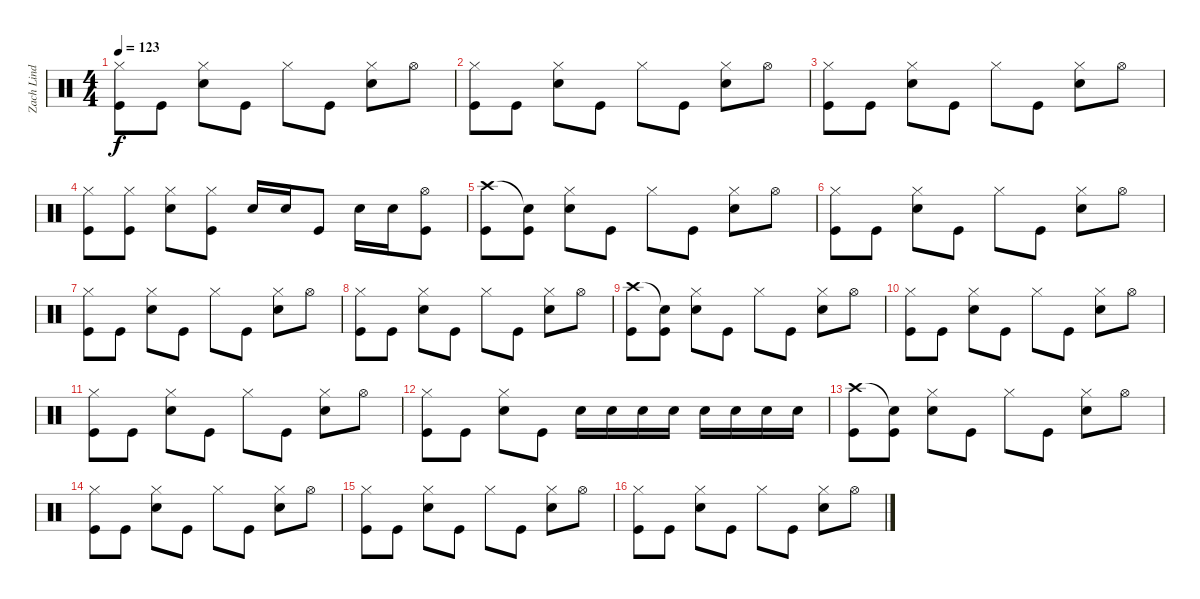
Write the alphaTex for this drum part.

\track ("Zach Lind (Drums)" "Zach Lind ") {instrument percussion}
\staff {score}
\articulation defaults
\ts (4 4)
\tempo 123
\clef neutral
\ks c
("Hi-Hat (closed)" "Kick (hit)").8{dy f} "Kick (hit)".8 ("Hi-Hat (closed)" "Snare (hit) 2").8 "Kick (hit)".8 "Hi-Hat (closed)".8 "Kick (hit)".8 ("Hi-Hat (closed)" "Snare (hit) 2").8 "Hi-Hat (open)".8 |
("Hi-Hat (closed)" "Kick (hit)").8 "Kick (hit)".8 ("Hi-Hat (closed)" "Snare (hit) 2").8 "Kick (hit)".8 "Hi-Hat (closed)".8 "Kick (hit)".8 ("Hi-Hat (closed)" "Snare (hit) 2").8 "Hi-Hat (open)".8 |
("Hi-Hat (closed)" "Kick (hit)").8 "Kick (hit)".8 ("Hi-Hat (closed)" "Snare (hit) 2").8 "Kick (hit)".8 "Hi-Hat (closed)".8 "Kick (hit)".8 ("Hi-Hat (closed)" "Snare (hit) 2").8 "Hi-Hat (open)".8 |
("Hi-Hat (closed)" "Kick (hit)").8 ("Hi-Hat (closed)" "Kick (hit)").8 ("Hi-Hat (closed)" "Snare (hit) 2").8 ("Hi-Hat (closed)" "Kick (hit)").8 "Snare (hit) 2".16 "Snare (hit) 2".16 "Kick (hit)".8 "Snare (hit) 2".16 "Snare (hit) 2".16 ("Hi-Hat (open)" "Kick (hit)").8 |
("Crash high (hit)" "Kick (hit)").8 ("Snare (hit)"{t} "Kick (hit)").8 ("Hi-Hat (closed)" "Snare (hit) 2").8 "Kick (hit)".8 "Hi-Hat (closed)".8 "Kick (hit)".8 ("Hi-Hat (closed)" "Snare (hit) 2").8 "Hi-Hat (open)".8 |
("Hi-Hat (closed)" "Kick (hit)").8 "Kick (hit)".8 ("Hi-Hat (closed)" "Snare (hit) 2").8 "Kick (hit)".8 "Hi-Hat (closed)".8 "Kick (hit)".8 ("Hi-Hat (closed)" "Snare (hit) 2").8 "Hi-Hat (open)".8 |
("Hi-Hat (closed)" "Kick (hit)").8 "Kick (hit)".8 ("Hi-Hat (closed)" "Snare (hit) 2").8 "Kick (hit)".8 "Hi-Hat (closed)".8 "Kick (hit)".8 ("Hi-Hat (closed)" "Snare (hit) 2").8 "Hi-Hat (open)".8 |
("Hi-Hat (closed)" "Kick (hit)").8 "Kick (hit)".8 ("Hi-Hat (closed)" "Snare (hit) 2").8 "Kick (hit)".8 "Hi-Hat (closed)".8 "Kick (hit)".8 ("Hi-Hat (closed)" "Snare (hit) 2").8 "Hi-Hat (open)".8 |
("Crash high (hit)" "Kick (hit)").8 ("Snare (hit)"{t} "Kick (hit)").8 ("Hi-Hat (closed)" "Snare (hit) 2").8 "Kick (hit)".8 "Hi-Hat (closed)".8 "Kick (hit)".8 ("Hi-Hat (closed)" "Snare (hit) 2").8 "Hi-Hat (open)".8 |
("Hi-Hat (closed)" "Kick (hit)").8 "Kick (hit)".8 ("Hi-Hat (closed)" "Snare (hit) 2").8 "Kick (hit)".8 "Hi-Hat (closed)".8 "Kick (hit)".8 ("Hi-Hat (closed)" "Snare (hit) 2").8 "Hi-Hat (open)".8 |
("Hi-Hat (closed)" "Kick (hit)").8 "Kick (hit)".8 ("Hi-Hat (closed)" "Snare (hit) 2").8 "Kick (hit)".8 "Hi-Hat (closed)".8 "Kick (hit)".8 ("Hi-Hat (closed)" "Snare (hit) 2").8 "Hi-Hat (open)".8 |
("Hi-Hat (closed)" "Kick (hit)").8 "Kick (hit)".8 ("Hi-Hat (closed)" "Snare (hit) 2").8 "Kick (hit)".8 "Snare (hit) 2".16 "Snare (hit) 2".16 "Snare (hit) 2".16 "Snare (hit) 2".16 "Snare (hit) 2".16 "Snare (hit) 2".16 "Snare (hit) 2".16 "Snare (hit) 2".16 |
("Crash high (hit)" "Kick (hit)").8 ("Snare (hit)"{t} "Kick (hit)").8 ("Hi-Hat (closed)" "Snare (hit) 2").8 "Kick (hit)".8 "Hi-Hat (closed)".8 "Kick (hit)".8 ("Hi-Hat (closed)" "Snare (hit) 2").8 "Hi-Hat (open)".8 |
("Hi-Hat (closed)" "Kick (hit)").8 "Kick (hit)".8 ("Hi-Hat (closed)" "Snare (hit) 2").8 "Kick (hit)".8 "Hi-Hat (closed)".8 "Kick (hit)".8 ("Hi-Hat (closed)" "Snare (hit) 2").8 "Hi-Hat (open)".8 |
("Hi-Hat (closed)" "Kick (hit)").8 "Kick (hit)".8 ("Hi-Hat (closed)" "Snare (hit) 2").8 "Kick (hit)".8 "Hi-Hat (closed)".8 "Kick (hit)".8 ("Hi-Hat (closed)" "Snare (hit) 2").8 "Hi-Hat (open)".8 |
("Hi-Hat (closed)" "Kick (hit)").8 "Kick (hit)".8 ("Hi-Hat (closed)" "Snare (hit) 2").8 "Kick (hit)".8 "Hi-Hat (closed)".8 "Kick (hit)".8 ("Hi-Hat (closed)" "Snare (hit) 2").8 "Hi-Hat (open)".8
